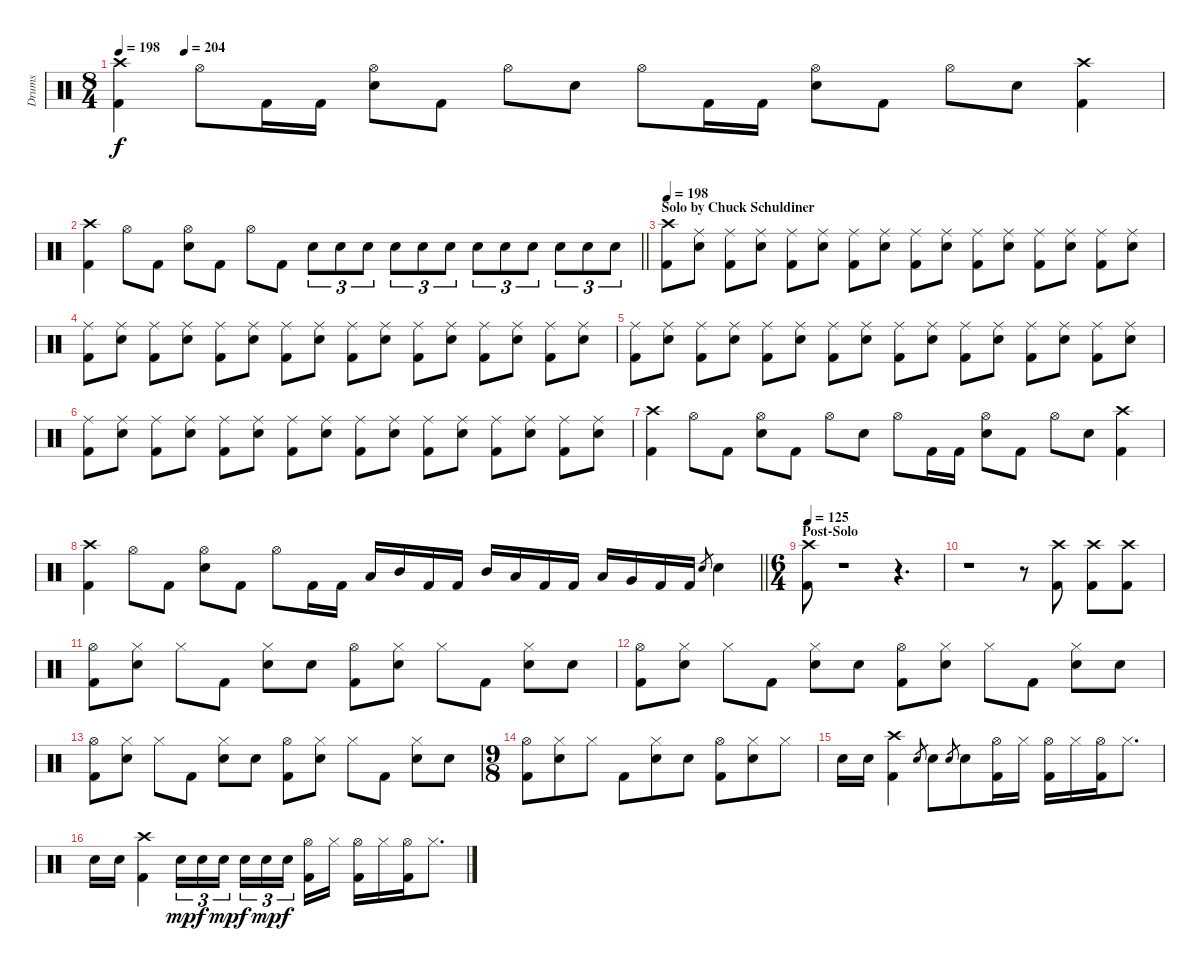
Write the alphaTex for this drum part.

\track ("Drums" "Drums") {instrument percussion}
\staff {score}
\articulation defaults
\ts (8 4)
\tempo 198
\tempo (204 0.0625)
\clef neutral
\ks c
("Crash high (hit)" "Kick (hit) 2").4{dy f} "Hi-Hat (open)".8 "Kick (hit) 2".16 "Kick (hit) 2".16 ("Hi-Hat (open)" "Snare (hit) 2").8 "Kick (hit) 2".8 "Hi-Hat (open)".8 "Snare (hit) 2".8 "Hi-Hat (open)".8 "Kick (hit) 2".16 "Kick (hit) 2".16 ("Hi-Hat (open)" "Snare (hit) 2").8 "Kick (hit) 2".8 "Hi-Hat (open)".8 "Snare (hit) 2".8 ("Crash high (hit)" "Kick (hit) 2").4 |
\barLineRight lightlight
("Crash high (hit)" "Kick (hit) 2").4 "Hi-Hat (open)".8 "Kick (hit) 2".8 ("Hi-Hat (open)" "Snare (hit) 2").8 "Kick (hit) 2".8 "Hi-Hat (open)".8 "Kick (hit) 2".8 "Snare (hit) 2".8{tu (3 2)} "Snare (hit) 2".8{tu (3 2)} "Snare (hit) 2".8{tu (3 2)} "Snare (hit) 2".8{tu (3 2)} "Snare (hit) 2".8{tu (3 2)} "Snare (hit) 2".8{tu (3 2)} "Snare (hit) 2".8{tu (3 2)} "Snare (hit) 2".8{tu (3 2)} "Snare (hit) 2".8{tu (3 2)} "Snare (hit) 2".8{tu (3 2)} "Snare (hit) 2".8{tu (3 2)} "Snare (hit) 2".8{tu (3 2)} |
\section ("" "Solo by Chuck Schuldiner")
\tempo 198
("Crash high (hit)" "Kick (hit) 2").8 ("Ride (middle)" "Snare (hit) 2").8 ("Ride (middle)" "Kick (hit) 2").8 ("Ride (middle)" "Snare (hit) 2").8 ("Ride (middle)" "Kick (hit) 2").8 ("Ride (middle)" "Snare (hit) 2").8 ("Ride (middle)" "Kick (hit) 2").8 ("Ride (middle)" "Snare (hit) 2").8 ("Ride (middle)" "Kick (hit) 2").8 ("Ride (middle)" "Snare (hit) 2").8 ("Ride (middle)" "Kick (hit) 2").8 ("Ride (middle)" "Snare (hit) 2").8 ("Ride (middle)" "Kick (hit) 2").8 ("Ride (middle)" "Snare (hit) 2").8 ("Ride (middle)" "Kick (hit) 2").8 ("Ride (middle)" "Snare (hit) 2").8 |
("Ride (middle)" "Kick (hit) 2").8 ("Ride (middle)" "Snare (hit) 2").8 ("Ride (middle)" "Kick (hit) 2").8 ("Ride (middle)" "Snare (hit) 2").8 ("Ride (middle)" "Kick (hit) 2").8 ("Ride (middle)" "Snare (hit) 2").8 ("Ride (middle)" "Kick (hit) 2").8 ("Ride (middle)" "Snare (hit) 2").8 ("Ride (middle)" "Kick (hit) 2").8 ("Ride (middle)" "Snare (hit) 2").8 ("Ride (middle)" "Kick (hit) 2").8 ("Ride (middle)" "Snare (hit) 2").8 ("Ride (middle)" "Kick (hit) 2").8 ("Ride (middle)" "Snare (hit) 2").8 ("Ride (middle)" "Kick (hit) 2").8 ("Ride (middle)" "Snare (hit) 2").8 |
("Ride (middle)" "Kick (hit) 2").8 ("Ride (middle)" "Snare (hit) 2").8 ("Ride (middle)" "Kick (hit) 2").8 ("Ride (middle)" "Snare (hit) 2").8 ("Ride (middle)" "Kick (hit) 2").8 ("Ride (middle)" "Snare (hit) 2").8 ("Ride (middle)" "Kick (hit) 2").8 ("Ride (middle)" "Snare (hit) 2").8 ("Ride (middle)" "Kick (hit) 2").8 ("Ride (middle)" "Snare (hit) 2").8 ("Ride (middle)" "Kick (hit) 2").8 ("Ride (middle)" "Snare (hit) 2").8 ("Ride (middle)" "Kick (hit) 2").8 ("Ride (middle)" "Snare (hit) 2").8 ("Ride (middle)" "Kick (hit) 2").8 ("Ride (middle)" "Snare (hit) 2").8 |
("Ride (middle)" "Kick (hit) 2").8 ("Ride (middle)" "Snare (hit) 2").8 ("Ride (middle)" "Kick (hit) 2").8 ("Ride (middle)" "Snare (hit) 2").8 ("Ride (middle)" "Kick (hit) 2").8 ("Ride (middle)" "Snare (hit) 2").8 ("Ride (middle)" "Kick (hit) 2").8 ("Ride (middle)" "Snare (hit) 2").8 ("Ride (middle)" "Kick (hit) 2").8 ("Ride (middle)" "Snare (hit) 2").8 ("Ride (middle)" "Kick (hit) 2").8 ("Ride (middle)" "Snare (hit) 2").8 ("Ride (middle)" "Kick (hit) 2").8 ("Ride (middle)" "Snare (hit) 2").8 ("Ride (middle)" "Kick (hit) 2").8 ("Ride (middle)" "Snare (hit) 2").8 |
("Crash high (hit)" "Kick (hit) 2").4 "Hi-Hat (open)".8 "Kick (hit) 2".8 ("Hi-Hat (open)" "Snare (hit) 2").8 "Kick (hit) 2".8 "Hi-Hat (open)".8 "Snare (hit) 2".8 "Hi-Hat (open)".8 "Kick (hit) 2".16 "Kick (hit) 2".16 ("Hi-Hat (open)" "Snare (hit) 2").8 "Kick (hit) 2".8 "Hi-Hat (open)".8 "Snare (hit) 2".8 ("Crash high (hit)" "Kick (hit) 2").4 |
\barLineRight lightlight
("Crash high (hit)" "Kick (hit) 2").4 "Hi-Hat (open)".8 "Kick (hit) 2".8 ("Hi-Hat (open)" "Snare (hit) 2").8 "Kick (hit) 2".8 "Hi-Hat (open)".8 "Kick (hit) 2".16 "Kick (hit) 2".16 "Low Tom (hit)".16 "Mid Tom (hit)".16 "Kick (hit) 2".16 "Kick (hit) 2".16 "Mid Tom (hit)".16 "Low Tom (hit)".16 "Kick (hit) 2".16 "Kick (hit) 2".16 "Low Tom (hit)".16 "Very Low Tom (hit)".16 "Kick (hit) 2".16 "Kick (hit) 2".16 "Snare (hit) 2".8{gr} "Snare (hit) 2".4 |
\ts (6 4)
\section ("" "Post-Solo")
\tempo 125
("Crash high (hit)" "Kick (hit) 2").8 r.1 r.4{d} |
r.1 r.8 ("Crash high (hit)" "Kick (hit) 2").8 ("Crash high (hit)" "Kick (hit) 2").8 ("Crash high (hit)" "Kick (hit) 2").8 |
("Hi-Hat (open)" "Kick (hit) 2").8 ("Hi-Hat (closed)" "Snare (hit) 2").8 "Hi-Hat (closed)".8 "Kick (hit) 2".8 ("Hi-Hat (closed)" "Snare (hit) 2").8 "Snare (hit) 2".8 ("Hi-Hat (open)" "Kick (hit) 2").8 ("Hi-Hat (closed)" "Snare (hit) 2").8 "Hi-Hat (closed)".8 "Kick (hit) 2".8 ("Hi-Hat (closed)" "Snare (hit) 2").8 "Snare (hit) 2".8 |
("Hi-Hat (open)" "Kick (hit) 2").8 ("Hi-Hat (closed)" "Snare (hit) 2").8 "Hi-Hat (closed)".8 "Kick (hit) 2".8 ("Hi-Hat (closed)" "Snare (hit) 2").8 "Snare (hit) 2".8 ("Hi-Hat (open)" "Kick (hit) 2").8 ("Hi-Hat (closed)" "Snare (hit) 2").8 "Hi-Hat (closed)".8 "Kick (hit) 2".8 ("Hi-Hat (closed)" "Snare (hit) 2").8 "Snare (hit) 2".8 |
("Hi-Hat (open)" "Kick (hit) 2").8 ("Hi-Hat (closed)" "Snare (hit) 2").8 "Hi-Hat (closed)".8 "Kick (hit) 2".8 ("Hi-Hat (closed)" "Snare (hit) 2").8 "Snare (hit) 2".8 ("Hi-Hat (open)" "Kick (hit) 2").8 ("Hi-Hat (closed)" "Snare (hit) 2").8 "Hi-Hat (closed)".8 "Kick (hit) 2".8 ("Hi-Hat (closed)" "Snare (hit) 2").8 "Snare (hit) 2".8 |
\ts (9 8)
("Hi-Hat (open)" "Kick (hit) 2").8 ("Hi-Hat (closed)" "Snare (hit) 2").8 "Hi-Hat (closed)".8 "Kick (hit) 2".8 ("Hi-Hat (closed)" "Snare (hit) 2").8 "Snare (hit) 2".8 ("Hi-Hat (open)" "Kick (hit) 2").8 ("Hi-Hat (closed)" "Snare (hit) 2").8 "Hi-Hat (closed)".8 |
"Snare (hit) 2".16 "Snare (hit) 2".16 ("Crash high (hit)" "Kick (hit) 2").4 "Snare (hit) 2".8{gr} "Snare (hit) 2".8 "Snare (hit) 2".8{gr} "Snare (hit) 2".8 ("Hi-Hat (open)" "Kick (hit) 2").16 "Hi-Hat (closed)".16 ("Hi-Hat (open)" "Kick (hit) 2").16 "Hi-Hat (closed)".16 ("Hi-Hat (open)" "Kick (hit) 2").16 "Hi-Hat (closed)".8{d} |
"Snare (hit) 2".16 "Snare (hit) 2".16 ("Crash high (hit)" "Kick (hit) 2").4 "Snare (hit) 2".16{tu (3 2) dy mp} "Snare (hit) 2".16{tu (3 2) dy f} "Snare (hit) 2".16{tu (3 2) dy mp beam splitsecondary} "Snare (hit) 2".16{tu (3 2) dy f} "Snare (hit) 2".16{tu (3 2) dy mp} "Snare (hit) 2".16{tu (3 2) dy f beam splitsecondary} ("Hi-Hat (open)" "Kick (hit) 2").16 "Hi-Hat (closed)".16 ("Hi-Hat (open)" "Kick (hit) 2").16 "Hi-Hat (closed)".16 ("Hi-Hat (open)" "Kick (hit) 2").16 "Hi-Hat (closed)".8{d}
